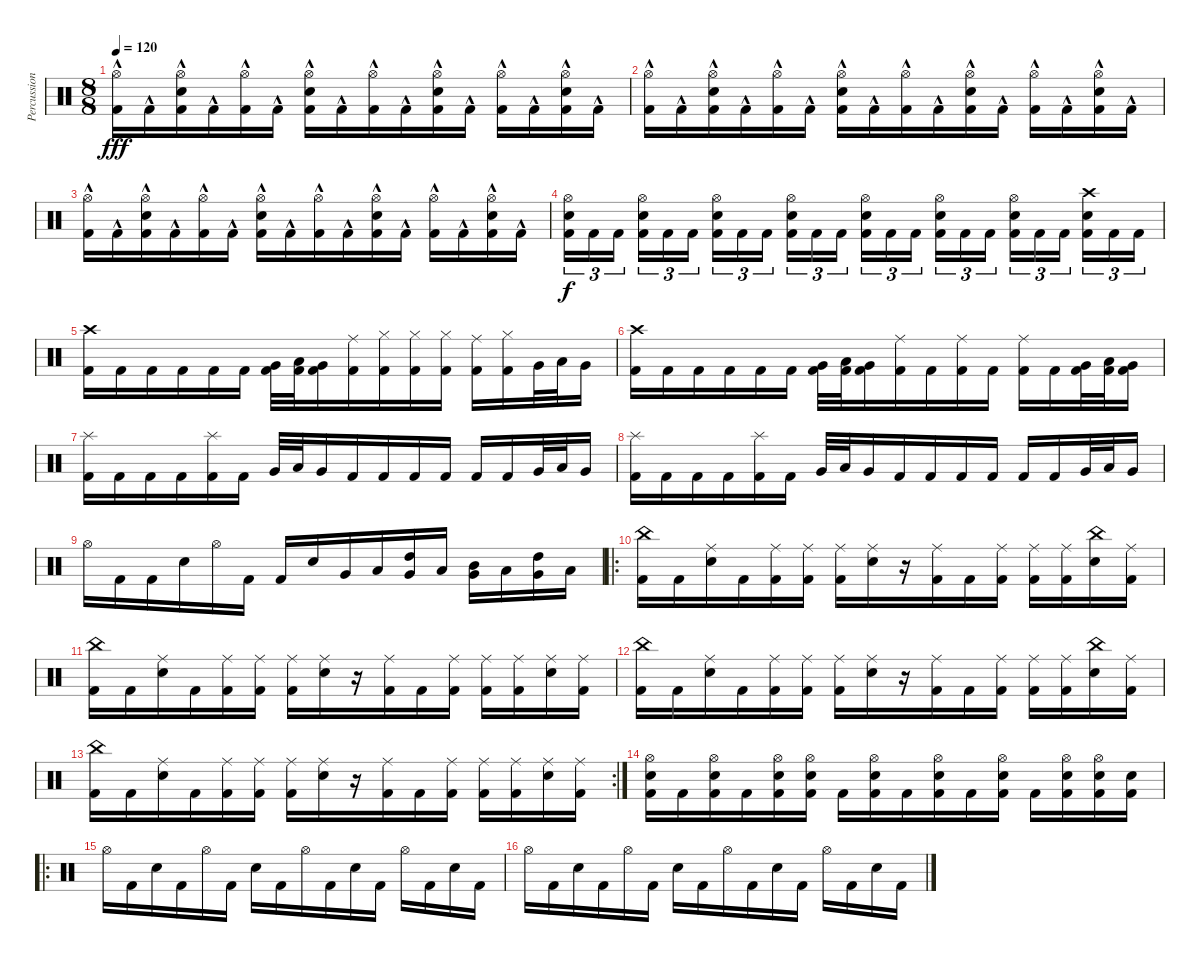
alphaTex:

\track ("Percussion" "Percussion") {instrument percussion}
\staff {score}
\articulation defaults
\ts (8 8)
\tempo 120
\clef neutral
\ks c
("Hi-Hat (open)" "Kick (hit) 2"{hac}).16{dy fff} "Kick (hit) 2"{hac}.16 ("Hi-Hat (open)" "Snare (hit) 2" "Kick (hit) 2"{hac}).16 "Kick (hit) 2"{hac}.16 ("Hi-Hat (open)" "Kick (hit) 2"{hac}).16 "Kick (hit) 2"{hac}.16 ("Hi-Hat (open)" "Snare (hit) 2" "Kick (hit) 2"{hac}).16 "Kick (hit) 2"{hac}.16 ("Hi-Hat (open)" "Kick (hit) 2"{hac}).16 "Kick (hit) 2"{hac}.16 ("Hi-Hat (open)" "Snare (hit) 2" "Kick (hit) 2"{hac}).16 "Kick (hit) 2"{hac}.16 ("Hi-Hat (open)" "Kick (hit) 2"{hac}).16 "Kick (hit) 2"{hac}.16 ("Hi-Hat (open)" "Snare (hit) 2" "Kick (hit) 2"{hac}).16 "Kick (hit) 2"{hac}.16 |
("Hi-Hat (open)" "Kick (hit) 2"{hac}).16 "Kick (hit) 2"{hac}.16 ("Hi-Hat (open)" "Snare (hit) 2" "Kick (hit) 2"{hac}).16 "Kick (hit) 2"{hac}.16 ("Hi-Hat (open)" "Kick (hit) 2"{hac}).16 "Kick (hit) 2"{hac}.16 ("Hi-Hat (open)" "Snare (hit) 2" "Kick (hit) 2"{hac}).16 "Kick (hit) 2"{hac}.16 ("Hi-Hat (open)" "Kick (hit) 2"{hac}).16 "Kick (hit) 2"{hac}.16 ("Hi-Hat (open)" "Snare (hit) 2" "Kick (hit) 2"{hac}).16 "Kick (hit) 2"{hac}.16 ("Hi-Hat (open)" "Kick (hit) 2"{hac}).16 "Kick (hit) 2"{hac}.16 ("Hi-Hat (open)" "Snare (hit) 2" "Kick (hit) 2"{hac}).16 "Kick (hit) 2"{hac}.16 |
("Hi-Hat (open)" "Kick (hit) 2"{hac}).16 "Kick (hit) 2"{hac}.16 ("Hi-Hat (open)" "Snare (hit) 2" "Kick (hit) 2"{hac}).16 "Kick (hit) 2"{hac}.16 ("Hi-Hat (open)" "Kick (hit) 2"{hac}).16 "Kick (hit) 2"{hac}.16 ("Hi-Hat (open)" "Snare (hit) 2" "Kick (hit) 2"{hac}).16 "Kick (hit) 2"{hac}.16 ("Hi-Hat (open)" "Kick (hit) 2"{hac}).16 "Kick (hit) 2"{hac}.16 ("Hi-Hat (open)" "Snare (hit) 2" "Kick (hit) 2"{hac}).16 "Kick (hit) 2"{hac}.16 ("Hi-Hat (open)" "Kick (hit) 2"{hac}).16 "Kick (hit) 2"{hac}.16 ("Hi-Hat (open)" "Snare (hit) 2" "Kick (hit) 2"{hac}).16 "Kick (hit) 2"{hac}.16 |
("Hi-Hat (open)" "Snare (hit) 2" "Kick (hit) 2").16{tu (3 2) dy f} "Kick (hit) 2".16{tu (3 2)} "Kick (hit) 2".16{tu (3 2)} ("Hi-Hat (open)" "Snare (hit) 2" "Kick (hit) 2").16{tu (3 2)} "Kick (hit) 2".16{tu (3 2)} "Kick (hit) 2".16{tu (3 2)} ("Hi-Hat (open)" "Snare (hit) 2" "Kick (hit) 2").16{tu (3 2)} "Kick (hit) 2".16{tu (3 2)} "Kick (hit) 2".16{tu (3 2)} ("Hi-Hat (open)" "Snare (hit) 2" "Kick (hit) 2").16{tu (3 2)} "Kick (hit) 2".16{tu (3 2)} "Kick (hit) 2".16{tu (3 2)} ("Hi-Hat (open)" "Snare (hit) 2" "Kick (hit) 2").16{tu (3 2)} "Kick (hit) 2".16{tu (3 2)} "Kick (hit) 2".16{tu (3 2)} ("Hi-Hat (open)" "Snare (hit) 2" "Kick (hit) 2").16{tu (3 2)} "Kick (hit) 2".16{tu (3 2)} "Kick (hit) 2".16{tu (3 2)} ("Hi-Hat (open)" "Snare (hit) 2" "Kick (hit) 2").16{tu (3 2)} "Kick (hit) 2".16{tu (3 2)} "Kick (hit) 2".16{tu (3 2)} ("Crash high (hit)" "Snare (hit) 2" "Kick (hit) 2").16{tu (3 2)} "Kick (hit) 2".16{tu (3 2)} "Kick (hit) 2".16{tu (3 2)} |
("Crash high (hit)" "Kick (hit) 2").16 "Kick (hit) 2".16 "Kick (hit) 2".16 "Kick (hit) 2".16 "Kick (hit) 2".16 "Kick (hit) 2".16 ("Very Low Tom (hit)" "Kick (hit) 2").32 ("Low Tom (hit)" "Kick (hit) 2").32 ("Very Low Tom (hit)" "Kick (hit) 2").16 ("Ride (middle)" "Kick (hit) 2").16 ("Hi-Hat (closed)" "Kick (hit) 2").16 ("Hi-Hat (closed)" "Kick (hit) 2").16 ("Hi-Hat (closed)" "Kick (hit) 2").16 ("Ride (middle)" "Kick (hit) 2").16 ("Hi-Hat (closed)" "Kick (hit) 2").16 "Very Low Tom (hit)".32 "Low Tom (hit)".32 "Very Low Tom (hit)".16 |
("Crash high (hit)" "Kick (hit) 2").16 "Kick (hit) 2".16 "Kick (hit) 2".16 "Kick (hit) 2".16 "Kick (hit) 2".16 "Kick (hit) 2".16 ("Very Low Tom (hit)" "Kick (hit) 2").32 ("Low Tom (hit)" "Kick (hit) 2").32 ("Very Low Tom (hit)" "Kick (hit) 2").16 ("Ride (middle)" "Kick (hit) 2").16 "Kick (hit) 2".16 ("Ride (middle)" "Kick (hit) 2").16 "Kick (hit) 2".16 ("Ride (middle)" "Kick (hit) 2").16 "Kick (hit) 2".16 ("Very Low Tom (hit)" "Kick (hit) 2").32 ("Low Tom (hit)" "Kick (hit) 2").32 ("Very Low Tom (hit)" "Kick (hit) 2").16 |
("Splash (hit)" "Kick (hit) 2").16 "Kick (hit) 2".16 "Kick (hit) 2".16 "Kick (hit) 2".16 ("Splash (hit)" "Kick (hit) 2").16 "Kick (hit) 2".16 "Very Low Tom (hit)".32 "Low Tom (hit)".32 "Very Low Tom (hit)".16 "Kick (hit) 2".16 "Kick (hit) 2".16 "Kick (hit) 2".16 "Kick (hit) 2".16 "Kick (hit) 2".16 "Kick (hit) 2".16 "Very Low Tom (hit)".32 "Low Tom (hit)".32 "Very Low Tom (hit)".16 |
("Splash (hit)" "Kick (hit) 2").16 "Kick (hit) 2".16 "Kick (hit) 2".16 "Kick (hit) 2".16 ("Splash (hit)" "Kick (hit) 2").16 "Kick (hit) 2".16 "Very Low Tom (hit)".32 "Low Tom (hit)".32 "Very Low Tom (hit)".16 "Kick (hit) 2".16 "Kick (hit) 2".16 "Kick (hit) 2".16 "Kick (hit) 2".16 "Kick (hit) 2".16 "Kick (hit) 2".16 "Very Low Tom (hit)".32 "Low Tom (hit)".32 "Very Low Tom (hit)".16 |
"Hi-Hat (open)".16 "Kick (hit) 2".16 "Kick (hit) 2".16 "Snare (hit) 2".16 "Hi-Hat (open)".16 "Kick (hit) 2".16 "Kick (hit) 2".16 "Snare (hit) 2".16 "Very Low Tom (hit)".16 "Low Tom (hit)".16 ("High Tom (hit)" "Very Low Tom (hit)").16 "Low Tom (hit)".16 ("Mid Tom (hit)" "Very Low Tom (hit)").16 "Low Tom (hit)".16 ("High Tom (hit)" "Very Low Tom (hit)").16 "Low Tom (hit)".16 |
\ro
("China (hit)" "Kick (hit) 2").16 "Kick (hit) 2".16 ("Ride (middle)" "Snare (hit) 2").16 "Kick (hit) 2".16 ("Ride (middle)" "Kick (hit) 2").16 ("Ride (middle)" "Kick (hit) 2").16 ("Ride (middle)" "Kick (hit) 2").16 ("Ride (middle)" "Snare (hit) 2").16 r.16 ("Ride (middle)" "Kick (hit) 2").16 "Kick (hit) 2".16 ("Ride (middle)" "Kick (hit) 2").16 ("Ride (middle)" "Kick (hit) 2").16 ("Ride (middle)" "Kick (hit) 2").16 ("China (hit)" "Snare (hit) 2").16 ("Ride (middle)" "Kick (hit) 2").16 |
("China (hit)" "Kick (hit) 2").16 "Kick (hit) 2".16 ("Ride (middle)" "Snare (hit) 2").16 "Kick (hit) 2".16 ("Ride (middle)" "Kick (hit) 2").16 ("Ride (middle)" "Kick (hit) 2").16 ("Ride (middle)" "Kick (hit) 2").16 ("Ride (middle)" "Snare (hit) 2").16 r.16 ("Ride (middle)" "Kick (hit) 2").16 "Kick (hit) 2".16 ("Ride (middle)" "Kick (hit) 2").16 ("Ride (middle)" "Kick (hit) 2").16 ("Ride (middle)" "Kick (hit) 2").16 ("Ride (middle)" "Snare (hit) 2").16 ("Ride (middle)" "Kick (hit) 2").16 |
("China (hit)" "Kick (hit) 2").16 "Kick (hit) 2".16 ("Ride (middle)" "Snare (hit) 2").16 "Kick (hit) 2".16 ("Ride (middle)" "Kick (hit) 2").16 ("Ride (middle)" "Kick (hit) 2").16 ("Ride (middle)" "Kick (hit) 2").16 ("Ride (middle)" "Snare (hit) 2").16 r.16 ("Ride (middle)" "Kick (hit) 2").16 "Kick (hit) 2".16 ("Ride (middle)" "Kick (hit) 2").16 ("Ride (middle)" "Kick (hit) 2").16 ("Ride (middle)" "Kick (hit) 2").16 ("China (hit)" "Snare (hit) 2").16 ("Ride (middle)" "Kick (hit) 2").16 |
\rc 2
("China (hit)" "Kick (hit) 2").16 "Kick (hit) 2".16 ("Ride (middle)" "Snare (hit) 2").16 "Kick (hit) 2".16 ("Ride (middle)" "Kick (hit) 2").16 ("Ride (middle)" "Kick (hit) 2").16 ("Ride (middle)" "Kick (hit) 2").16 ("Ride (middle)" "Snare (hit) 2").16 r.16 ("Ride (middle)" "Kick (hit) 2").16 "Kick (hit) 2".16 ("Ride (middle)" "Kick (hit) 2").16 ("Ride (middle)" "Kick (hit) 2").16 ("Ride (middle)" "Kick (hit) 2").16 ("Ride (middle)" "Snare (hit) 2").16 ("Ride (middle)" "Kick (hit) 2").16 |
("Hi-Hat (open)" "Snare (hit) 2" "Kick (hit) 2").16 "Kick (hit) 2".16 ("Hi-Hat (open)" "Snare (hit) 2" "Kick (hit) 2").16 "Kick (hit) 2".16 ("Hi-Hat (open)" "Snare (hit) 2" "Kick (hit) 2").16 ("Hi-Hat (open)" "Snare (hit) 2" "Kick (hit) 2").16 "Kick (hit) 2".16 ("Hi-Hat (open)" "Snare (hit) 2" "Kick (hit) 2").16 "Kick (hit) 2".16 ("Hi-Hat (open)" "Snare (hit) 2" "Kick (hit) 2").16 "Kick (hit) 2".16 ("Hi-Hat (open)" "Snare (hit) 2" "Kick (hit) 2").16 "Kick (hit) 2".16 ("Hi-Hat (open)" "Snare (hit) 2" "Kick (hit) 2").16 ("Hi-Hat (open)" "Snare (hit) 2" "Kick (hit) 2").16 ("Snare (hit) 2" "Kick (hit) 2").16 |
\ro "Hi-Hat (open)".16 "Kick (hit) 2".16 "Snare (hit) 2".16 "Kick (hit) 2".16 "Hi-Hat (open)".16 "Kick (hit) 2".16 "Snare (hit) 2".16 "Kick (hit) 2".16 "Hi-Hat (open)".16 "Kick (hit) 2".16 "Snare (hit) 2".16 "Kick (hit) 2".16 "Hi-Hat (open)".16 "Kick (hit) 2".16 "Snare (hit) 2".16 "Kick (hit) 2".16
|
"Hi-Hat (open)".16 "Kick (hit) 2".16 "Snare (hit) 2".16 "Kick (hit) 2".16 "Hi-Hat (open)".16 "Kick (hit) 2".16 "Snare (hit) 2".16 "Kick (hit) 2".16 "Hi-Hat (open)".16 "Kick (hit) 2".16 "Snare (hit) 2".16 "Kick (hit) 2".16 "Hi-Hat (open)".16 "Kick (hit) 2".16 "Snare (hit) 2".16 "Kick (hit) 2".16
